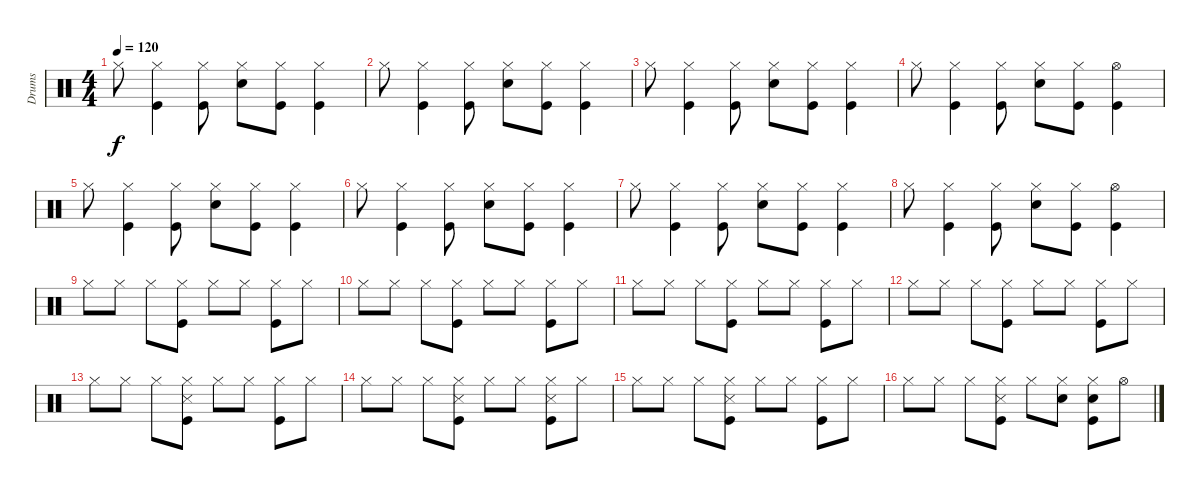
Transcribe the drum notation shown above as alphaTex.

\track ("Drums" "Drums") {instrument percussion}
\staff {score}
\articulation defaults
\ts (4 4)
\tempo 120
\clef neutral
\ks c "Hi-Hat (closed)".8{dy f}
("Hi-Hat (closed)" "Kick (hit)").4 ("Hi-Hat (closed)" "Kick (hit)").8 ("Snare (hit) 2" "Hi-Hat (closed)").8 ("Hi-Hat (closed)" "Kick (hit)").8 ("Hi-Hat (closed)" "Kick (hit)").4 |
"Hi-Hat (closed)".8 ("Hi-Hat (closed)" "Kick (hit)").4 ("Hi-Hat (closed)" "Kick (hit)").8 ("Snare (hit) 2" "Hi-Hat (closed)").8 ("Hi-Hat (closed)" "Kick (hit)").8 ("Hi-Hat (closed)" "Kick (hit)").4 |
"Hi-Hat (closed)".8 ("Hi-Hat (closed)" "Kick (hit)").4 ("Hi-Hat (closed)" "Kick (hit)").8 ("Snare (hit) 2" "Hi-Hat (closed)").8 ("Hi-Hat (closed)" "Kick (hit)").8 ("Hi-Hat (closed)" "Kick (hit)").4 |
"Hi-Hat (closed)".8 ("Hi-Hat (closed)" "Kick (hit)").4 ("Hi-Hat (closed)" "Kick (hit)").8 ("Snare (hit) 2" "Hi-Hat (closed)").8 ("Hi-Hat (closed)" "Kick (hit)").8 ("Hi-Hat (open)" "Kick (hit)").4 |
"Hi-Hat (closed)".8 ("Hi-Hat (closed)" "Kick (hit)").4 ("Hi-Hat (closed)" "Kick (hit)").8 ("Snare (hit) 2" "Hi-Hat (closed)").8 ("Hi-Hat (closed)" "Kick (hit)").8 ("Hi-Hat (closed)" "Kick (hit)").4 |
"Hi-Hat (closed)".8 ("Hi-Hat (closed)" "Kick (hit)").4 ("Hi-Hat (closed)" "Kick (hit)").8 ("Snare (hit) 2" "Hi-Hat (closed)").8 ("Hi-Hat (closed)" "Kick (hit)").8 ("Hi-Hat (closed)" "Kick (hit)").4 |
"Hi-Hat (closed)".8 ("Hi-Hat (closed)" "Kick (hit)").4 ("Hi-Hat (closed)" "Kick (hit)").8 ("Snare (hit) 2" "Hi-Hat (closed)").8 ("Hi-Hat (closed)" "Kick (hit)").8 ("Hi-Hat (closed)" "Kick (hit)").4 |
"Hi-Hat (closed)".8 ("Hi-Hat (closed)" "Kick (hit)").4 ("Hi-Hat (closed)" "Kick (hit)").8 ("Snare (hit) 2" "Hi-Hat (closed)").8 ("Hi-Hat (closed)" "Kick (hit)").8 ("Hi-Hat (open)" "Kick (hit)").4 |
"Hi-Hat (closed)".8 "Hi-Hat (closed)".8 "Hi-Hat (closed)".8 ("Hi-Hat (closed)" "Kick (hit)").8 "Hi-Hat (closed)".8 "Hi-Hat (closed)".8 ("Hi-Hat (closed)" "Kick (hit)").8 "Hi-Hat (closed)".8 |
"Hi-Hat (closed)".8 "Hi-Hat (closed)".8 "Hi-Hat (closed)".8 ("Hi-Hat (closed)" "Kick (hit)").8 "Hi-Hat (closed)".8 "Hi-Hat (closed)".8 ("Hi-Hat (closed)" "Kick (hit)").8 "Hi-Hat (closed)".8 |
"Hi-Hat (closed)".8 "Hi-Hat (closed)".8 "Hi-Hat (closed)".8 ("Hi-Hat (closed)" "Kick (hit)").8 "Hi-Hat (closed)".8 "Hi-Hat (closed)".8 ("Hi-Hat (closed)" "Kick (hit)").8 "Hi-Hat (closed)".8 |
"Hi-Hat (closed)".8 "Hi-Hat (closed)".8 "Hi-Hat (closed)".8 ("Hi-Hat (closed)" "Kick (hit)").8 "Hi-Hat (closed)".8 "Hi-Hat (closed)".8 ("Hi-Hat (closed)" "Kick (hit)").8 "Hi-Hat (closed)".8 |
"Hi-Hat (closed)".8 "Hi-Hat (closed)".8 "Hi-Hat (closed)".8 ("Snare (side stick) 3" "Hi-Hat (closed)" "Kick (hit)").8 "Hi-Hat (closed)".8 "Hi-Hat (closed)".8 ("Hi-Hat (closed)" "Kick (hit)").8 "Hi-Hat (closed)".8 |
"Hi-Hat (closed)".8 "Hi-Hat (closed)".8 "Hi-Hat (closed)".8 ("Snare (side stick) 3" "Hi-Hat (closed)" "Kick (hit)").8 "Hi-Hat (closed)".8 "Hi-Hat (closed)".8 ("Snare (side stick) 3" "Hi-Hat (closed)" "Kick (hit)").8 "Hi-Hat (closed)".8 |
"Hi-Hat (closed)".8 "Hi-Hat (closed)".8 "Hi-Hat (closed)".8 ("Snare (side stick) 3" "Hi-Hat (closed)" "Kick (hit)").8 "Hi-Hat (closed)".8 "Hi-Hat (closed)".8 ("Hi-Hat (closed)" "Kick (hit)").8 "Hi-Hat (closed)".8 |
"Hi-Hat (closed)".8 "Hi-Hat (closed)".8 "Hi-Hat (closed)".8 ("Snare (side stick) 3" "Hi-Hat (closed)" "Kick (hit)").8 "Hi-Hat (closed)".8 ("Snare (hit) 2" "Hi-Hat (closed)").8 ("Snare (hit) 2" "Hi-Hat (closed)" "Kick (hit)").8 "Hi-Hat (open)".8
